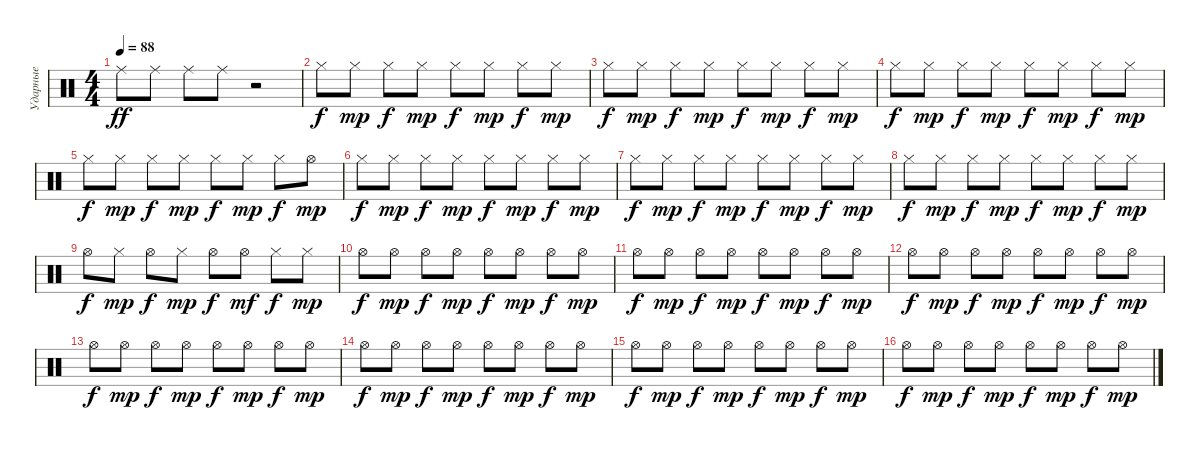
\track ("Ударные" "Ударные") {instrument percussion}
\staff {score}
\articulation defaults
\ts (4 4)
\tempo 88
\clef neutral
\ks c "Ride (middle)".8{dy ff} "Ride (middle)".8 "Ride (middle)".8 "Ride (middle)".8
r.2 |
"Hi-Hat (closed)".8{dy f} "Hi-Hat (closed)".8{dy mp} "Hi-Hat (closed)".8{dy f} "Hi-Hat (closed)".8{dy mp} "Hi-Hat (closed)".8{dy f} "Hi-Hat (closed)".8{dy mp} "Hi-Hat (closed)".8{dy f} "Hi-Hat (closed)".8{dy mp} |
"Hi-Hat (closed)".8{dy f} "Hi-Hat (closed)".8{dy mp} "Hi-Hat (closed)".8{dy f} "Hi-Hat (closed)".8{dy mp} "Hi-Hat (closed)".8{dy f} "Hi-Hat (closed)".8{dy mp} "Hi-Hat (closed)".8{dy f} "Hi-Hat (closed)".8{dy mp} |
"Hi-Hat (closed)".8{dy f} "Hi-Hat (closed)".8{dy mp} "Hi-Hat (closed)".8{dy f} "Hi-Hat (closed)".8{dy mp} "Hi-Hat (closed)".8{dy f} "Hi-Hat (closed)".8{dy mp} "Hi-Hat (closed)".8{dy f} "Hi-Hat (closed)".8{dy mp} |
"Hi-Hat (closed)".8{dy f} "Hi-Hat (closed)".8{dy mp} "Hi-Hat (closed)".8{dy f} "Hi-Hat (closed)".8{dy mp} "Hi-Hat (closed)".8{dy f} "Hi-Hat (closed)".8{dy mp} "Hi-Hat (closed)".8{dy f} "Hi-Hat (open)".8{dy mp} |
"Hi-Hat (closed)".8{dy f} "Hi-Hat (closed)".8{dy mp} "Hi-Hat (closed)".8{dy f} "Hi-Hat (closed)".8{dy mp} "Hi-Hat (closed)".8{dy f} "Hi-Hat (closed)".8{dy mp} "Hi-Hat (closed)".8{dy f} "Hi-Hat (closed)".8{dy mp} |
"Hi-Hat (closed)".8{dy f} "Hi-Hat (closed)".8{dy mp} "Hi-Hat (closed)".8{dy f} "Hi-Hat (closed)".8{dy mp} "Hi-Hat (closed)".8{dy f} "Hi-Hat (closed)".8{dy mp} "Hi-Hat (closed)".8{dy f} "Hi-Hat (closed)".8{dy mp} |
"Hi-Hat (closed)".8{dy f} "Hi-Hat (closed)".8{dy mp} "Hi-Hat (closed)".8{dy f} "Hi-Hat (closed)".8{dy mp} "Hi-Hat (closed)".8{dy f} "Hi-Hat (closed)".8{dy mp} "Hi-Hat (closed)".8{dy f} "Hi-Hat (closed)".8{dy mp} |
"Hi-Hat (open)".8{dy f} "Hi-Hat (closed)".8{dy mp} "Hi-Hat (open)".8{dy f} "Hi-Hat (closed)".8{dy mp} "Hi-Hat (open)".8{dy f} "Hi-Hat (open)".8{dy mf} "Hi-Hat (closed)".8{dy f} "Hi-Hat (closed)".8{dy mp} |
"Hi-Hat (open)".8{dy f} "Hi-Hat (open)".8{dy mp} "Hi-Hat (open)".8{dy f} "Hi-Hat (open)".8{dy mp} "Hi-Hat (open)".8{dy f} "Hi-Hat (open)".8{dy mp} "Hi-Hat (open)".8{dy f} "Hi-Hat (open)".8{dy mp} |
"Hi-Hat (open)".8{dy f} "Hi-Hat (open)".8{dy mp} "Hi-Hat (open)".8{dy f} "Hi-Hat (open)".8{dy mp} "Hi-Hat (open)".8{dy f} "Hi-Hat (open)".8{dy mp} "Hi-Hat (open)".8{dy f} "Hi-Hat (open)".8{dy mp} |
"Hi-Hat (open)".8{dy f} "Hi-Hat (open)".8{dy mp} "Hi-Hat (open)".8{dy f} "Hi-Hat (open)".8{dy mp} "Hi-Hat (open)".8{dy f} "Hi-Hat (open)".8{dy mp} "Hi-Hat (open)".8{dy f} "Hi-Hat (open)".8{dy mp} |
"Hi-Hat (open)".8{dy f} "Hi-Hat (open)".8{dy mp} "Hi-Hat (open)".8{dy f} "Hi-Hat (open)".8{dy mp} "Hi-Hat (open)".8{dy f} "Hi-Hat (open)".8{dy mp} "Hi-Hat (open)".8{dy f} "Hi-Hat (open)".8{dy mp} |
"Hi-Hat (open)".8{dy f} "Hi-Hat (open)".8{dy mp} "Hi-Hat (open)".8{dy f} "Hi-Hat (open)".8{dy mp} "Hi-Hat (open)".8{dy f} "Hi-Hat (open)".8{dy mp} "Hi-Hat (open)".8{dy f} "Hi-Hat (open)".8{dy mp} |
"Hi-Hat (open)".8{dy f} "Hi-Hat (open)".8{dy mp} "Hi-Hat (open)".8{dy f} "Hi-Hat (open)".8{dy mp} "Hi-Hat (open)".8{dy f} "Hi-Hat (open)".8{dy mp} "Hi-Hat (open)".8{dy f} "Hi-Hat (open)".8{dy mp} |
"Hi-Hat (open)".8{dy f} "Hi-Hat (open)".8{dy mp} "Hi-Hat (open)".8{dy f} "Hi-Hat (open)".8{dy mp} "Hi-Hat (open)".8{dy f} "Hi-Hat (open)".8{dy mp} "Hi-Hat (open)".8{dy f} "Hi-Hat (open)".8{dy mp}
